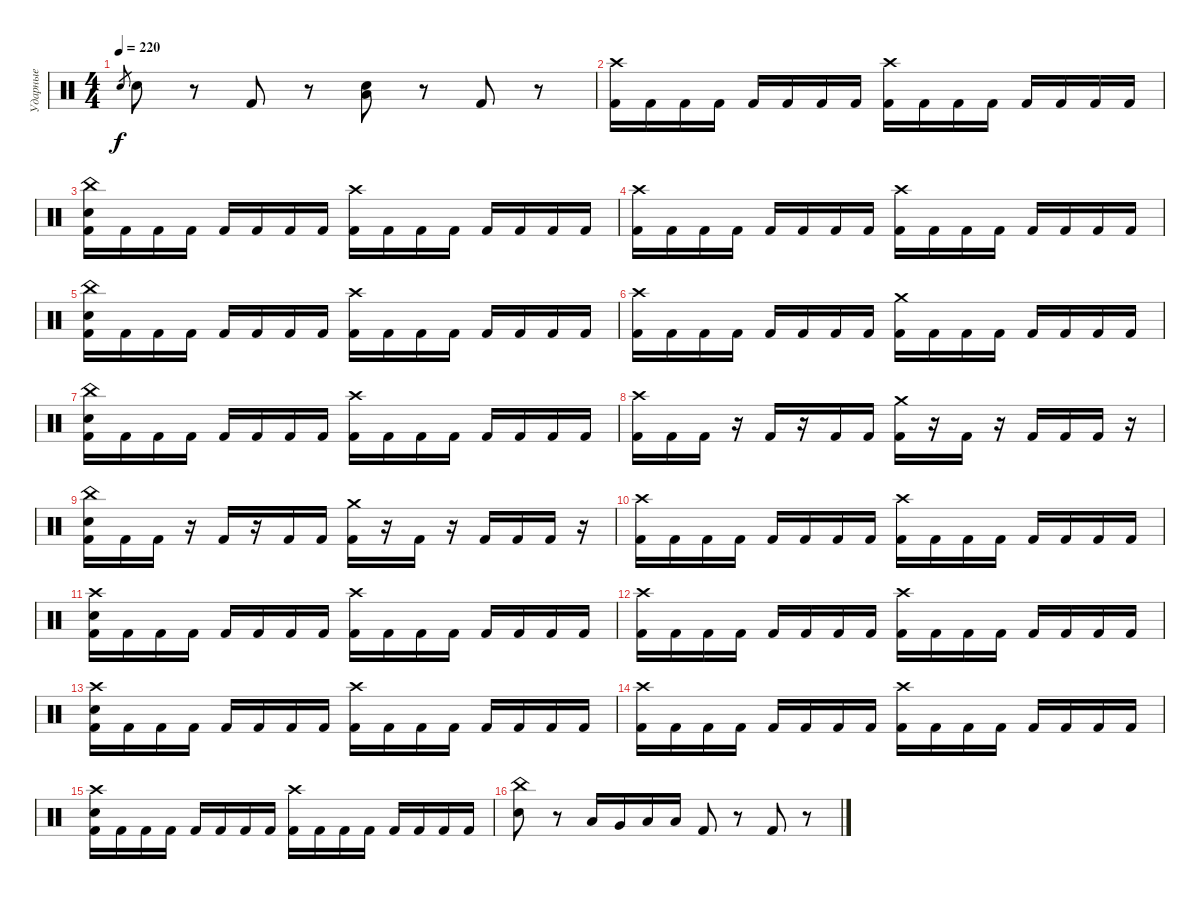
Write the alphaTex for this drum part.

\track ("Ударные" "Ударные") {instrument percussion}
\staff {score}
\articulation defaults
\ts (4 4)
\tempo 220
\clef neutral
\ks c "Electric Snare (hit)".8{gr dy f} "Electric Snare (hit)".8
r.8 "Kick (hit) 2".8 r.8 ("Low Floor Tom (hit)" "Electric Snare (hit)").8 r.8 "Kick (hit) 2".8 r.8 |
("Kick (hit) 2" "Crash high (hit)").16 "Kick (hit) 2".16 "Kick (hit) 2".16 "Kick (hit) 2".16 "Kick (hit) 2".16 "Kick (hit) 2".16 "Kick (hit) 2".16 "Kick (hit) 2".16 ("Kick (hit) 2" "Crash high (hit)").16 "Kick (hit) 2".16 "Kick (hit) 2".16 "Kick (hit) 2".16 "Kick (hit) 2".16 "Kick (hit) 2".16 "Kick (hit) 2".16 "Kick (hit) 2".16 |
("Kick (hit) 2" "Electric Snare (hit)" "China (hit)").16 "Kick (hit) 2".16 "Kick (hit) 2".16 "Kick (hit) 2".16 "Kick (hit) 2".16 "Kick (hit) 2".16 "Kick (hit) 2".16 "Kick (hit) 2".16 ("Kick (hit) 2" "Crash high (hit)").16 "Kick (hit) 2".16 "Kick (hit) 2".16 "Kick (hit) 2".16 "Kick (hit) 2".16 "Kick (hit) 2".16 "Kick (hit) 2".16 "Kick (hit) 2".16 |
("Kick (hit) 2" "Crash high (hit)").16 "Kick (hit) 2".16 "Kick (hit) 2".16 "Kick (hit) 2".16 "Kick (hit) 2".16 "Kick (hit) 2".16 "Kick (hit) 2".16 "Kick (hit) 2".16 ("Kick (hit) 2" "Crash high (hit)").16 "Kick (hit) 2".16 "Kick (hit) 2".16 "Kick (hit) 2".16 "Kick (hit) 2".16 "Kick (hit) 2".16 "Kick (hit) 2".16 "Kick (hit) 2".16 |
("Kick (hit) 2" "Electric Snare (hit)" "China (hit)").16 "Kick (hit) 2".16 "Kick (hit) 2".16 "Kick (hit) 2".16 "Kick (hit) 2".16 "Kick (hit) 2".16 "Kick (hit) 2".16 "Kick (hit) 2".16 ("Kick (hit) 2" "Crash high (hit)").16 "Kick (hit) 2".16 "Kick (hit) 2".16 "Kick (hit) 2".16 "Kick (hit) 2".16 "Kick (hit) 2".16 "Kick (hit) 2".16 "Kick (hit) 2".16 |
("Kick (hit) 2" "Crash high (hit)").16 "Kick (hit) 2".16 "Kick (hit) 2".16 "Kick (hit) 2".16 "Kick (hit) 2".16 "Kick (hit) 2".16 "Kick (hit) 2".16 "Kick (hit) 2".16 ("Kick (hit) 2" "Crash medium (hit)").16 "Kick (hit) 2".16 "Kick (hit) 2".16 "Kick (hit) 2".16 "Kick (hit) 2".16 "Kick (hit) 2".16 "Kick (hit) 2".16 "Kick (hit) 2".16 |
("Kick (hit) 2" "Electric Snare (hit)" "China (hit)").16 "Kick (hit) 2".16 "Kick (hit) 2".16 "Kick (hit) 2".16 "Kick (hit) 2".16 "Kick (hit) 2".16 "Kick (hit) 2".16 "Kick (hit) 2".16 ("Kick (hit) 2" "Crash high (hit)").16 "Kick (hit) 2".16 "Kick (hit) 2".16 "Kick (hit) 2".16 "Kick (hit) 2".16 "Kick (hit) 2".16 "Kick (hit) 2".16 "Kick (hit) 2".16 |
("Kick (hit) 2" "Crash high (hit)").16 "Kick (hit) 2".16 "Kick (hit) 2".16 r.16 "Kick (hit) 2".16 r.16 "Kick (hit) 2".16 "Kick (hit) 2".16 ("Kick (hit) 2" "Crash medium (hit)").16 r.16 "Kick (hit) 2".16 r.16 "Kick (hit) 2".16 "Kick (hit) 2".16 "Kick (hit) 2".16 r.16 |
("Kick (hit) 2" "Electric Snare (hit)" "China (hit)").16 "Kick (hit) 2".16 "Kick (hit) 2".16 r.16 "Kick (hit) 2".16 r.16 "Kick (hit) 2".16 "Kick (hit) 2".16 ("Kick (hit) 2" "Crash medium (hit)").16 r.16 "Kick (hit) 2".16 r.16 "Kick (hit) 2".16 "Kick (hit) 2".16 "Kick (hit) 2".16 r.16 |
("Kick (hit) 2" "Crash high (hit)").16 "Kick (hit) 2".16 "Kick (hit) 2".16 "Kick (hit) 2".16 "Kick (hit) 2".16 "Kick (hit) 2".16 "Kick (hit) 2".16 "Kick (hit) 2".16 ("Kick (hit) 2" "Crash high (hit)").16 "Kick (hit) 2".16 "Kick (hit) 2".16 "Kick (hit) 2".16 "Kick (hit) 2".16 "Kick (hit) 2".16 "Kick (hit) 2".16 "Kick (hit) 2".16 |
("Kick (hit) 2" "Electric Snare (hit)" "Crash high (hit)").16 "Kick (hit) 2".16 "Kick (hit) 2".16 "Kick (hit) 2".16 "Kick (hit) 2".16 "Kick (hit) 2".16 "Kick (hit) 2".16 "Kick (hit) 2".16 ("Kick (hit) 2" "Crash high (hit)").16 "Kick (hit) 2".16 "Kick (hit) 2".16 "Kick (hit) 2".16 "Kick (hit) 2".16 "Kick (hit) 2".16 "Kick (hit) 2".16 "Kick (hit) 2".16 |
("Kick (hit) 2" "Crash high (hit)").16 "Kick (hit) 2".16 "Kick (hit) 2".16 "Kick (hit) 2".16 "Kick (hit) 2".16 "Kick (hit) 2".16 "Kick (hit) 2".16 "Kick (hit) 2".16 ("Kick (hit) 2" "Crash high (hit)").16 "Kick (hit) 2".16 "Kick (hit) 2".16 "Kick (hit) 2".16 "Kick (hit) 2".16 "Kick (hit) 2".16 "Kick (hit) 2".16 "Kick (hit) 2".16 |
("Kick (hit) 2" "Electric Snare (hit)" "Crash high (hit)").16 "Kick (hit) 2".16 "Kick (hit) 2".16 "Kick (hit) 2".16 "Kick (hit) 2".16 "Kick (hit) 2".16 "Kick (hit) 2".16 "Kick (hit) 2".16 ("Kick (hit) 2" "Crash high (hit)").16 "Kick (hit) 2".16 "Kick (hit) 2".16 "Kick (hit) 2".16 "Kick (hit) 2".16 "Kick (hit) 2".16 "Kick (hit) 2".16 "Kick (hit) 2".16 |
("Kick (hit) 2" "Crash high (hit)").16 "Kick (hit) 2".16 "Kick (hit) 2".16 "Kick (hit) 2".16 "Kick (hit) 2".16 "Kick (hit) 2".16 "Kick (hit) 2".16 "Kick (hit) 2".16 ("Kick (hit) 2" "Crash high (hit)").16 "Kick (hit) 2".16 "Kick (hit) 2".16 "Kick (hit) 2".16 "Kick (hit) 2".16 "Kick (hit) 2".16 "Kick (hit) 2".16 "Kick (hit) 2".16 |
("Kick (hit) 2" "Electric Snare (hit)" "Crash high (hit)").16 "Kick (hit) 2".16 "Kick (hit) 2".16 "Kick (hit) 2".16 "Kick (hit) 2".16 "Kick (hit) 2".16 "Kick (hit) 2".16 "Kick (hit) 2".16 ("Kick (hit) 2" "Crash high (hit)").16 "Kick (hit) 2".16 "Kick (hit) 2".16 "Kick (hit) 2".16 "Kick (hit) 2".16 "Kick (hit) 2".16 "Kick (hit) 2".16 "Kick (hit) 2".16 |
("Electric Snare (hit)" "China (hit)").8 r.8 "Low Tom (hit)".16 "Very Low Tom (hit)".16 "Low Floor Tom (hit)".16 "Low Floor Tom (hit)".16 "Kick (hit) 2".8 r.8 "Kick (hit) 2".8 r.8
